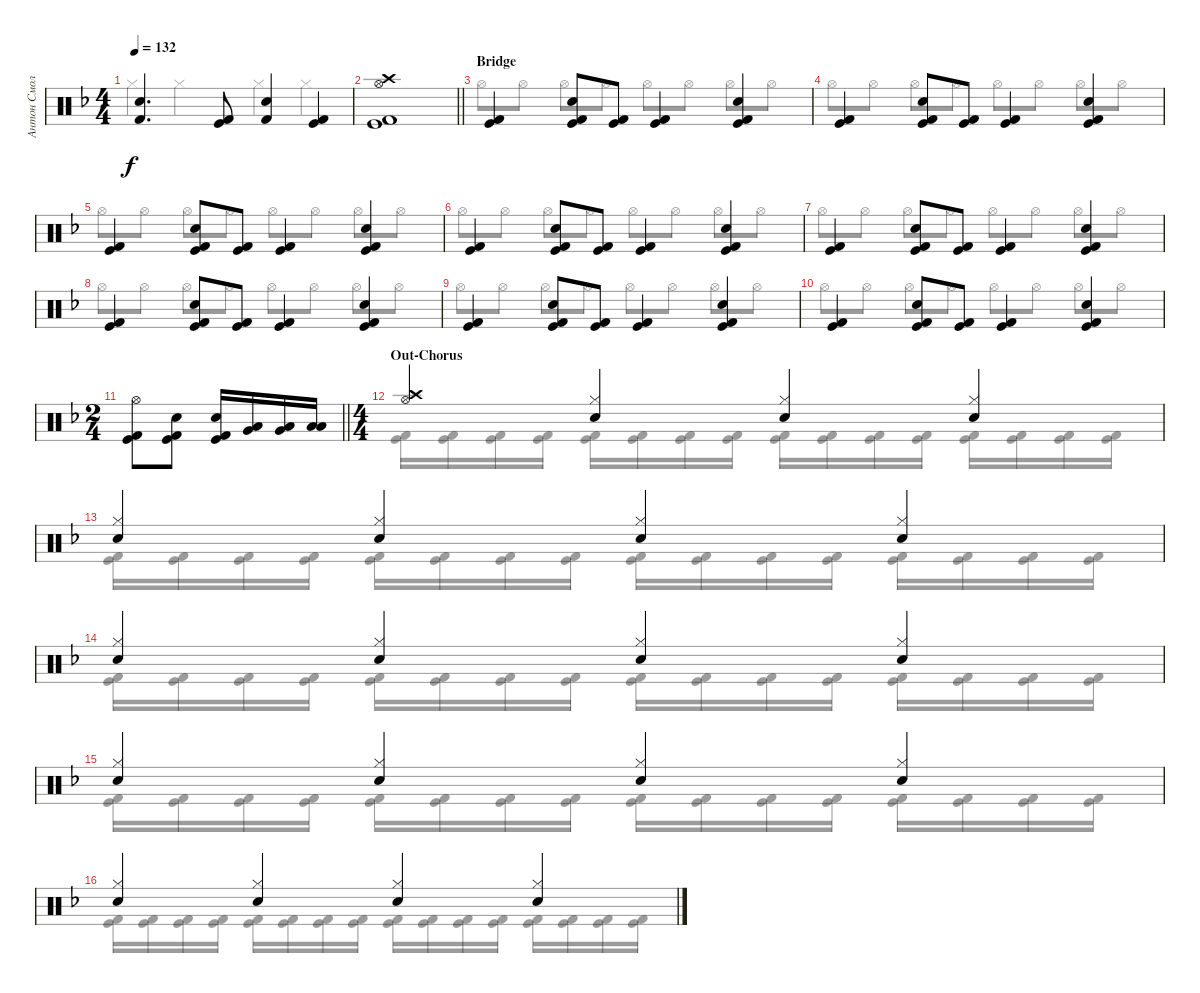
\track ("Антон Смольянин" "Антон Смол") {instrument percussion}
\staff {score}
\articulation defaults
\voice
\ts (4 4)
\tempo 132
\clef neutral
\ks f
("Kick (hit) 2" "Snare (hit) 2").4{d dy f} ("Kick (hit) 2" "Kick (hit)").8 ("Kick (hit) 2" "Snare (hit) 2").4 ("Kick (hit) 2" "Kick (hit)").4 |
\barLineRight lightlight
("Kick (hit) 2" "Kick (hit)" "Crash high (hit)" "Hi-Hat (open)").1 |
\section ("" "Bridge")
("Kick (hit) 2" "Kick (hit)").4 ("Kick (hit) 2" "Kick (hit)" "Snare (hit) 2").8 ("Kick (hit) 2" "Kick (hit)").8 ("Kick (hit) 2" "Kick (hit)").4 ("Kick (hit) 2" "Kick (hit)" "Snare (hit) 2").4 |
("Kick (hit) 2" "Kick (hit)").4 ("Kick (hit) 2" "Kick (hit)" "Snare (hit) 2").8 ("Kick (hit) 2" "Kick (hit)").8 ("Kick (hit) 2" "Kick (hit)").4 ("Kick (hit) 2" "Kick (hit)" "Snare (hit) 2").4 |
("Kick (hit) 2" "Kick (hit)").4 ("Kick (hit) 2" "Kick (hit)" "Snare (hit) 2").8 ("Kick (hit) 2" "Kick (hit)").8 ("Kick (hit) 2" "Kick (hit)").4 ("Kick (hit) 2" "Kick (hit)" "Snare (hit) 2").4 |
("Kick (hit) 2" "Kick (hit)").4 ("Kick (hit) 2" "Kick (hit)" "Snare (hit) 2").8 ("Kick (hit) 2" "Kick (hit)").8 ("Kick (hit) 2" "Kick (hit)").4 ("Kick (hit) 2" "Kick (hit)" "Snare (hit) 2").4 |
("Kick (hit) 2" "Kick (hit)").4 ("Kick (hit) 2" "Kick (hit)" "Snare (hit) 2").8 ("Kick (hit) 2" "Kick (hit)").8 ("Kick (hit) 2" "Kick (hit)").4 ("Kick (hit) 2" "Kick (hit)" "Snare (hit) 2").4 |
("Kick (hit) 2" "Kick (hit)").4 ("Kick (hit) 2" "Kick (hit)" "Snare (hit) 2").8 ("Kick (hit) 2" "Kick (hit)").8 ("Kick (hit) 2" "Kick (hit)").4 ("Kick (hit) 2" "Kick (hit)" "Snare (hit) 2").4 |
("Kick (hit) 2" "Kick (hit)").4 ("Kick (hit) 2" "Kick (hit)" "Snare (hit) 2").8 ("Kick (hit) 2" "Kick (hit)").8 ("Kick (hit) 2" "Kick (hit)").4 ("Kick (hit) 2" "Kick (hit)" "Snare (hit) 2").4 |
("Kick (hit) 2" "Kick (hit)").4 ("Kick (hit) 2" "Kick (hit)" "Snare (hit) 2").8 ("Kick (hit) 2" "Kick (hit)").8 ("Kick (hit) 2" "Kick (hit)").4 ("Kick (hit) 2" "Kick (hit)" "Snare (hit) 2").4 |
\ts (2 4)
\barLineRight lightlight
("Kick (hit) 2" "Kick (hit)" "Hi-Hat (open)").8 ("Kick (hit) 2" "Kick (hit)" "Snare (hit) 2").8 ("Kick (hit) 2" "Kick (hit)" "Snare (hit) 2").16 ("Low Tom (hit)" "Very Low Tom (hit)").16 ("Low Tom (hit)" "Very Low Tom (hit)").16 ("Low Tom (hit)" "Low Floor Tom (hit)").16 |
\ts (4 4)
\section ("" "Out-Chorus")
("Hi-Hat (open)" "Crash high (hit)").4 ("Hi-Hat (closed)" "Snare (hit) 2").4 ("Hi-Hat (closed)" "Snare (hit) 2").4 ("Hi-Hat (closed)" "Snare (hit) 2").4 |
("Hi-Hat (closed)" "Snare (hit) 2").4 ("Hi-Hat (closed)" "Snare (hit) 2").4 ("Hi-Hat (closed)" "Snare (hit) 2").4 ("Hi-Hat (closed)" "Snare (hit) 2").4 |
("Hi-Hat (closed)" "Snare (hit) 2").4 ("Hi-Hat (closed)" "Snare (hit) 2").4 ("Hi-Hat (closed)" "Snare (hit) 2").4 ("Hi-Hat (closed)" "Snare (hit) 2").4 |
("Hi-Hat (closed)" "Snare (hit) 2").4 ("Hi-Hat (closed)" "Snare (hit) 2").4 ("Hi-Hat (closed)" "Snare (hit) 2").4 ("Hi-Hat (closed)" "Snare (hit) 2").4 |
("Hi-Hat (closed)" "Snare (hit) 2").4 ("Hi-Hat (closed)" "Snare (hit) 2").4 ("Hi-Hat (closed)" "Snare (hit) 2").4 ("Hi-Hat (closed)" "Snare (hit) 2").4
\voice
\clef neutral
\ottava regular
\simile none
\ks f "Hi-Hat (closed)".4{dy f} "Hi-Hat (closed)".4 "Hi-Hat (closed)".4 "Hi-Hat (closed)".4
|
\barLineRight lightlight
|
"Hi-Hat (open)".8 "Hi-Hat (open)".8 "Hi-Hat (open)".8 "Hi-Hat (open)".8 "Hi-Hat (open)".8 "Hi-Hat (open)".8 "Hi-Hat (open)".8 "Hi-Hat (open)".8 |
"Hi-Hat (open)".8 "Hi-Hat (open)".8 "Hi-Hat (open)".8 "Hi-Hat (open)".8 "Hi-Hat (open)".8 "Hi-Hat (open)".8 "Hi-Hat (open)".8 "Hi-Hat (open)".8 |
"Hi-Hat (open)".8 "Hi-Hat (open)".8 "Hi-Hat (open)".8 "Hi-Hat (open)".8 "Hi-Hat (open)".8 "Hi-Hat (open)".8 "Hi-Hat (open)".8 "Hi-Hat (open)".8 |
"Hi-Hat (open)".8 "Hi-Hat (open)".8 "Hi-Hat (open)".8 "Hi-Hat (open)".8 "Hi-Hat (open)".8 "Hi-Hat (open)".8 "Hi-Hat (open)".8 "Hi-Hat (open)".8 |
"Hi-Hat (open)".8 "Hi-Hat (open)".8 "Hi-Hat (open)".8 "Hi-Hat (open)".8 "Hi-Hat (open)".8 "Hi-Hat (open)".8 "Hi-Hat (open)".8 "Hi-Hat (open)".8 |
"Hi-Hat (open)".8 "Hi-Hat (open)".8 "Hi-Hat (open)".8 "Hi-Hat (open)".8 "Hi-Hat (open)".8 "Hi-Hat (open)".8 "Hi-Hat (open)".8 "Hi-Hat (open)".8 |
"Hi-Hat (open)".8 "Hi-Hat (open)".8 "Hi-Hat (open)".8 "Hi-Hat (open)".8 "Hi-Hat (open)".8 "Hi-Hat (open)".8 "Hi-Hat (open)".8 "Hi-Hat (open)".8 |
"Hi-Hat (open)".8 "Hi-Hat (open)".8 "Hi-Hat (open)".8 "Hi-Hat (open)".8 "Hi-Hat (open)".8 "Hi-Hat (open)".8 "Hi-Hat (open)".8 "Hi-Hat (open)".8 |
\barLineRight lightlight
|
("Kick (hit) 2" "Kick (hit)").16 ("Kick (hit) 2" "Kick (hit)").16 ("Kick (hit) 2" "Kick (hit)").16 ("Kick (hit) 2" "Kick (hit)").16 ("Kick (hit) 2" "Kick (hit)").16 ("Kick (hit) 2" "Kick (hit)").16 ("Kick (hit) 2" "Kick (hit)").16 ("Kick (hit) 2" "Kick (hit)").16 ("Kick (hit) 2" "Kick (hit)").16 ("Kick (hit) 2" "Kick (hit)").16 ("Kick (hit) 2" "Kick (hit)").16 ("Kick (hit) 2" "Kick (hit)").16 ("Kick (hit) 2" "Kick (hit)").16 ("Kick (hit) 2" "Kick (hit)").16 ("Kick (hit) 2" "Kick (hit)").16 ("Kick (hit) 2" "Kick (hit)").16 |
("Kick (hit) 2" "Kick (hit)").16 ("Kick (hit) 2" "Kick (hit)").16 ("Kick (hit) 2" "Kick (hit)").16 ("Kick (hit) 2" "Kick (hit)").16 ("Kick (hit) 2" "Kick (hit)").16 ("Kick (hit) 2" "Kick (hit)").16 ("Kick (hit) 2" "Kick (hit)").16 ("Kick (hit) 2" "Kick (hit)").16 ("Kick (hit) 2" "Kick (hit)").16 ("Kick (hit) 2" "Kick (hit)").16 ("Kick (hit) 2" "Kick (hit)").16 ("Kick (hit) 2" "Kick (hit)").16 ("Kick (hit) 2" "Kick (hit)").16 ("Kick (hit) 2" "Kick (hit)").16 ("Kick (hit) 2" "Kick (hit)").16 ("Kick (hit) 2" "Kick (hit)").16 |
("Kick (hit) 2" "Kick (hit)").16 ("Kick (hit) 2" "Kick (hit)").16 ("Kick (hit) 2" "Kick (hit)").16 ("Kick (hit) 2" "Kick (hit)").16 ("Kick (hit) 2" "Kick (hit)").16 ("Kick (hit) 2" "Kick (hit)").16 ("Kick (hit) 2" "Kick (hit)").16 ("Kick (hit) 2" "Kick (hit)").16 ("Kick (hit) 2" "Kick (hit)").16 ("Kick (hit) 2" "Kick (hit)").16 ("Kick (hit) 2" "Kick (hit)").16 ("Kick (hit) 2" "Kick (hit)").16 ("Kick (hit) 2" "Kick (hit)").16 ("Kick (hit) 2" "Kick (hit)").16 ("Kick (hit) 2" "Kick (hit)").16 ("Kick (hit) 2" "Kick (hit)").16 |
("Kick (hit) 2" "Kick (hit)").16 ("Kick (hit) 2" "Kick (hit)").16 ("Kick (hit) 2" "Kick (hit)").16 ("Kick (hit) 2" "Kick (hit)").16 ("Kick (hit) 2" "Kick (hit)").16 ("Kick (hit) 2" "Kick (hit)").16 ("Kick (hit) 2" "Kick (hit)").16 ("Kick (hit) 2" "Kick (hit)").16 ("Kick (hit) 2" "Kick (hit)").16 ("Kick (hit) 2" "Kick (hit)").16 ("Kick (hit) 2" "Kick (hit)").16 ("Kick (hit) 2" "Kick (hit)").16 ("Kick (hit) 2" "Kick (hit)").16 ("Kick (hit) 2" "Kick (hit)").16 ("Kick (hit) 2" "Kick (hit)").16 ("Kick (hit) 2" "Kick (hit)").16 |
("Kick (hit) 2" "Kick (hit)").16 ("Kick (hit) 2" "Kick (hit)").16 ("Kick (hit) 2" "Kick (hit)").16 ("Kick (hit) 2" "Kick (hit)").16 ("Kick (hit) 2" "Kick (hit)").16 ("Kick (hit) 2" "Kick (hit)").16 ("Kick (hit) 2" "Kick (hit)").16 ("Kick (hit) 2" "Kick (hit)").16 ("Kick (hit) 2" "Kick (hit)").16 ("Kick (hit) 2" "Kick (hit)").16 ("Kick (hit) 2" "Kick (hit)").16 ("Kick (hit) 2" "Kick (hit)").16 ("Kick (hit) 2" "Kick (hit)").16 ("Kick (hit) 2" "Kick (hit)").16 ("Kick (hit) 2" "Kick (hit)").16 ("Kick (hit) 2" "Kick (hit)").16
